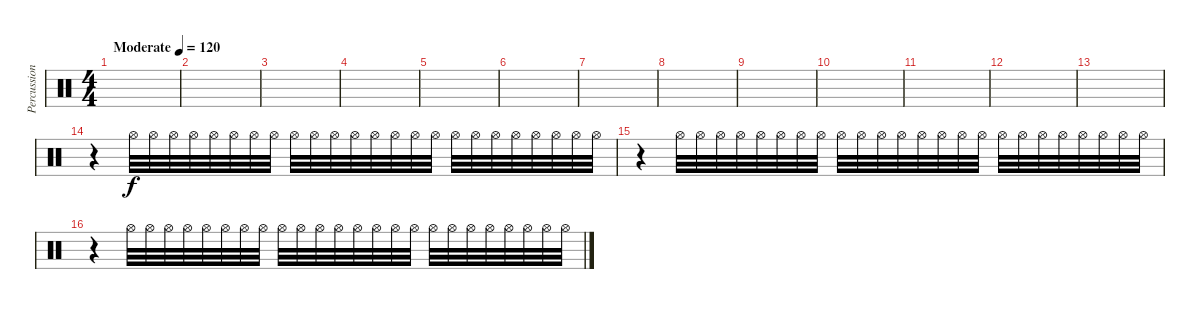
\track ("Percussion" "Percussion") {instrument percussion}
\staff {score}
\articulation defaults
\ts (4 4)
\tempo (120 "Moderate")
\clef neutral
\ks c
|
|
|
|
|
|
|
|
|
|
|
|
|
r.4{volume 0} "Hi-Hat (open)".32{volume 13} "Hi-Hat (open)".32 "Hi-Hat (open)".32 "Hi-Hat (open)".32 "Hi-Hat (open)".32 "Hi-Hat (open)".32 "Hi-Hat (open)".32 "Hi-Hat (open)".32 "Hi-Hat (open)".32 "Hi-Hat (open)".32 "Hi-Hat (open)".32 "Hi-Hat (open)".32 "Hi-Hat (open)".32 "Hi-Hat (open)".32 "Hi-Hat (open)".32 "Hi-Hat (open)".32 "Hi-Hat (open)".32 "Hi-Hat (open)".32 "Hi-Hat (open)".32 "Hi-Hat (open)".32 "Hi-Hat (open)".32 "Hi-Hat (open)".32 "Hi-Hat (open)".32 "Hi-Hat (open)".32 |
r.4{volume 0} "Hi-Hat (open)".32{volume 13} "Hi-Hat (open)".32 "Hi-Hat (open)".32 "Hi-Hat (open)".32 "Hi-Hat (open)".32 "Hi-Hat (open)".32 "Hi-Hat (open)".32 "Hi-Hat (open)".32 "Hi-Hat (open)".32 "Hi-Hat (open)".32 "Hi-Hat (open)".32 "Hi-Hat (open)".32 "Hi-Hat (open)".32 "Hi-Hat (open)".32 "Hi-Hat (open)".32 "Hi-Hat (open)".32 "Hi-Hat (open)".32 "Hi-Hat (open)".32 "Hi-Hat (open)".32 "Hi-Hat (open)".32 "Hi-Hat (open)".32 "Hi-Hat (open)".32 "Hi-Hat (open)".32 "Hi-Hat (open)".32 |
r.4{volume 0} "Hi-Hat (open)".32{volume 13} "Hi-Hat (open)".32 "Hi-Hat (open)".32 "Hi-Hat (open)".32 "Hi-Hat (open)".32 "Hi-Hat (open)".32 "Hi-Hat (open)".32 "Hi-Hat (open)".32 "Hi-Hat (open)".32 "Hi-Hat (open)".32 "Hi-Hat (open)".32 "Hi-Hat (open)".32 "Hi-Hat (open)".32 "Hi-Hat (open)".32 "Hi-Hat (open)".32 "Hi-Hat (open)".32 "Hi-Hat (open)".32 "Hi-Hat (open)".32 "Hi-Hat (open)".32 "Hi-Hat (open)".32 "Hi-Hat (open)".32 "Hi-Hat (open)".32 "Hi-Hat (open)".32 "Hi-Hat (open)".32
